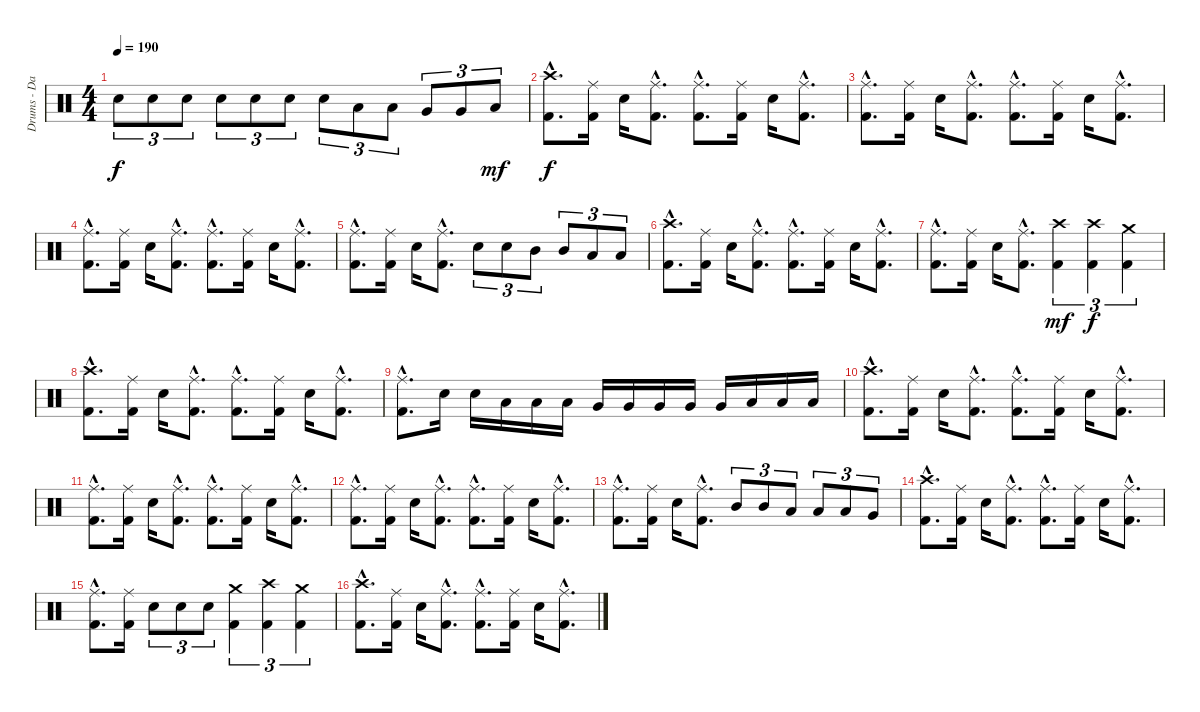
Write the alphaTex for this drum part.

\track ("Drums - Daniel Zimmermann" "Drums - Da") {instrument percussion}
\staff {score}
\articulation defaults
\ts (4 4)
\tempo 190
\clef neutral
\ks c "Electric Snare (hit)".8{tu (3 2) dy f} "Electric Snare (hit)".8{tu (3 2)} "Electric Snare (hit)".8{tu (3 2)} "Electric Snare (hit)".8{tu (3 2)} "Electric Snare (hit)".8{tu (3 2)} "Electric Snare (hit)".8{tu (3 2)} "Electric Snare (hit)".8{tu (3 2)} "Low Tom (hit)".8{tu (3 2)} "Low Tom (hit)".8{tu (3 2)} "Very Low Tom (hit)".8{tu (3 2)} "Very Low Tom (hit)".8{tu (3 2)} "Low Floor Tom (hit)".8{tu (3 2) dy mf}
|
\section ("" "")
("Kick (hit) 2"{hac} "Crash high (hit)"{hac}).8{d dy f} ("Kick (hit) 2" "Ride (middle)").16 "Electric Snare (hit)".16 ("Kick (hit) 2"{hac} "Ride (middle)"{hac}).8{d} ("Kick (hit) 2"{hac} "Ride (middle)"{hac}).8{d} ("Kick (hit) 2" "Ride (middle)").16 "Electric Snare (hit)".16 ("Kick (hit) 2"{hac} "Ride (middle)"{hac}).8{d} |
("Kick (hit) 2"{hac} "Ride (middle)"{hac}).8{d} ("Kick (hit) 2" "Ride (middle)").16 "Electric Snare (hit)".16 ("Kick (hit) 2"{hac} "Ride (middle)"{hac}).8{d} ("Kick (hit) 2"{hac} "Ride (middle)"{hac}).8{d} ("Kick (hit) 2" "Ride (middle)").16 "Electric Snare (hit)".16 ("Kick (hit) 2"{hac} "Ride (middle)"{hac}).8{d} |
("Kick (hit) 2"{hac} "Ride (middle)"{hac}).8{d} ("Kick (hit) 2" "Ride (middle)").16 "Electric Snare (hit)".16 ("Kick (hit) 2"{hac} "Ride (middle)"{hac}).8{d} ("Kick (hit) 2"{hac} "Ride (middle)"{hac}).8{d} ("Kick (hit) 2" "Ride (middle)").16 "Electric Snare (hit)".16 ("Kick (hit) 2"{hac} "Ride (middle)"{hac}).8{d} |
("Kick (hit) 2"{hac} "Ride (middle)"{hac}).8{d} ("Kick (hit) 2" "Ride (middle)").16 "Electric Snare (hit)".16 ("Kick (hit) 2"{hac} "Ride (middle)"{hac}).8{d} "Electric Snare (hit)".8{tu (3 2)} "Electric Snare (hit)".8{tu (3 2)} "Mid Tom (hit)".8{tu (3 2)} "Mid Tom (hit)".8{tu (3 2)} "Low Tom (hit)".8{tu (3 2)} "Low Tom (hit)".8{tu (3 2)} |
("Kick (hit) 2"{hac} "Crash high (hit)"{hac}).8{d} ("Kick (hit) 2" "Ride (middle)").16 "Electric Snare (hit)".16 ("Kick (hit) 2"{hac} "Ride (middle)"{hac}).8{d} ("Kick (hit) 2"{hac} "Ride (middle)"{hac}).8{d} ("Kick (hit) 2" "Ride (middle)").16 "Electric Snare (hit)".16 ("Kick (hit) 2"{hac} "Ride (middle)"{hac}).8{d} |
("Kick (hit) 2"{hac} "Ride (middle)"{hac}).8{d} ("Kick (hit) 2" "Ride (middle)").16 "Electric Snare (hit)".16 ("Kick (hit) 2"{hac} "Ride (middle)"{hac}).8{d} ("Kick (hit) 2" "Crash high (hit)").4{tu (3 2) dy mf} ("Kick (hit) 2" "Crash high (hit)").4{tu (3 2) dy f} ("Kick (hit) 2" "Crash medium (hit)").4{tu (3 2)} |
("Kick (hit) 2"{hac} "Crash high (hit)"{hac}).8{d} ("Kick (hit) 2" "Ride (middle)").16 "Electric Snare (hit)".16 ("Kick (hit) 2"{hac} "Ride (middle)"{hac}).8{d} ("Kick (hit) 2"{hac} "Ride (middle)"{hac}).8{d} ("Kick (hit) 2" "Ride (middle)").16 "Electric Snare (hit)".16 ("Kick (hit) 2"{hac} "Ride (middle)"{hac}).8{d} |
("Kick (hit) 2"{hac} "Ride (middle)"{hac}).8{d} "Electric Snare (hit)".16 "Electric Snare (hit)".16 "Low Tom (hit)".16 "Low Tom (hit)".16 "Low Tom (hit)".16 "Very Low Tom (hit)".16 "Very Low Tom (hit)".16 "Very Low Tom (hit)".16 "Very Low Tom (hit)".16 "Very Low Tom (hit)".16 "Low Floor Tom (hit)".16 "Low Floor Tom (hit)".16 "Low Floor Tom (hit)".16 |
("Kick (hit) 2"{hac} "Crash high (hit)"{hac}).8{d} ("Kick (hit) 2" "Ride (middle)").16 "Electric Snare (hit)".16 ("Kick (hit) 2"{hac} "Ride (middle)"{hac}).8{d} ("Kick (hit) 2"{hac} "Ride (middle)"{hac}).8{d} ("Kick (hit) 2" "Ride (middle)").16 "Electric Snare (hit)".16 ("Kick (hit) 2"{hac} "Ride (middle)"{hac}).8{d} |
("Kick (hit) 2"{hac} "Ride (middle)"{hac}).8{d} ("Kick (hit) 2" "Ride (middle)").16 "Electric Snare (hit)".16 ("Kick (hit) 2"{hac} "Ride (middle)"{hac}).8{d} ("Kick (hit) 2"{hac} "Ride (middle)"{hac}).8{d} ("Kick (hit) 2" "Ride (middle)").16 "Electric Snare (hit)".16 ("Kick (hit) 2"{hac} "Ride (middle)"{hac}).8{d} |
("Kick (hit) 2"{hac} "Ride (middle)"{hac}).8{d} ("Kick (hit) 2" "Ride (middle)").16 "Electric Snare (hit)".16 ("Kick (hit) 2"{hac} "Ride (middle)"{hac}).8{d} ("Kick (hit) 2"{hac} "Ride (middle)"{hac}).8{d} ("Kick (hit) 2" "Ride (middle)").16 "Electric Snare (hit)".16 ("Kick (hit) 2"{hac} "Ride (middle)"{hac}).8{d} |
("Kick (hit) 2"{hac} "Ride (middle)"{hac}).8{d} ("Kick (hit) 2" "Ride (middle)").16 "Electric Snare (hit)".16 ("Kick (hit) 2"{hac} "Ride (middle)"{hac}).8{d} "Mid Tom (hit)".8{tu (3 2)} "Mid Tom (hit)".8{tu (3 2)} "Low Tom (hit)".8{tu (3 2)} "Low Tom (hit)".8{tu (3 2)} "Low Tom (hit)".8{tu (3 2)} "Very Low Tom (hit)".8{tu (3 2)} |
("Kick (hit) 2"{hac} "Crash high (hit)"{hac}).8{d} ("Kick (hit) 2" "Ride (middle)").16 "Electric Snare (hit)".16 ("Kick (hit) 2"{hac} "Ride (middle)"{hac}).8{d} ("Kick (hit) 2"{hac} "Ride (middle)"{hac}).8{d} ("Kick (hit) 2" "Ride (middle)").16 "Electric Snare (hit)".16 ("Kick (hit) 2"{hac} "Ride (middle)"{hac}).8{d} |
("Kick (hit) 2"{hac} "Ride (middle)"{hac}).8{d} ("Kick (hit) 2" "Ride (middle)").16 "Electric Snare (hit)".8{tu (3 2)} "Electric Snare (hit)".8{tu (3 2)} "Electric Snare (hit)".8{tu (3 2)} ("Kick (hit) 2" "Crash medium (hit)").4{tu (3 2)} ("Kick (hit) 2" "Crash high (hit)").4{tu (3 2)} ("Kick (hit) 2" "Crash medium (hit)").4{tu (3 2)} |
("Kick (hit) 2"{hac} "Crash high (hit)"{hac}).8{d} ("Kick (hit) 2" "Ride (middle)").16 "Electric Snare (hit)".16 ("Kick (hit) 2"{hac} "Ride (middle)"{hac}).8{d} ("Kick (hit) 2"{hac} "Ride (middle)"{hac}).8{d} ("Kick (hit) 2" "Ride (middle)").16 "Electric Snare (hit)".16 ("Kick (hit) 2"{hac} "Ride (middle)"{hac}).8{d}
